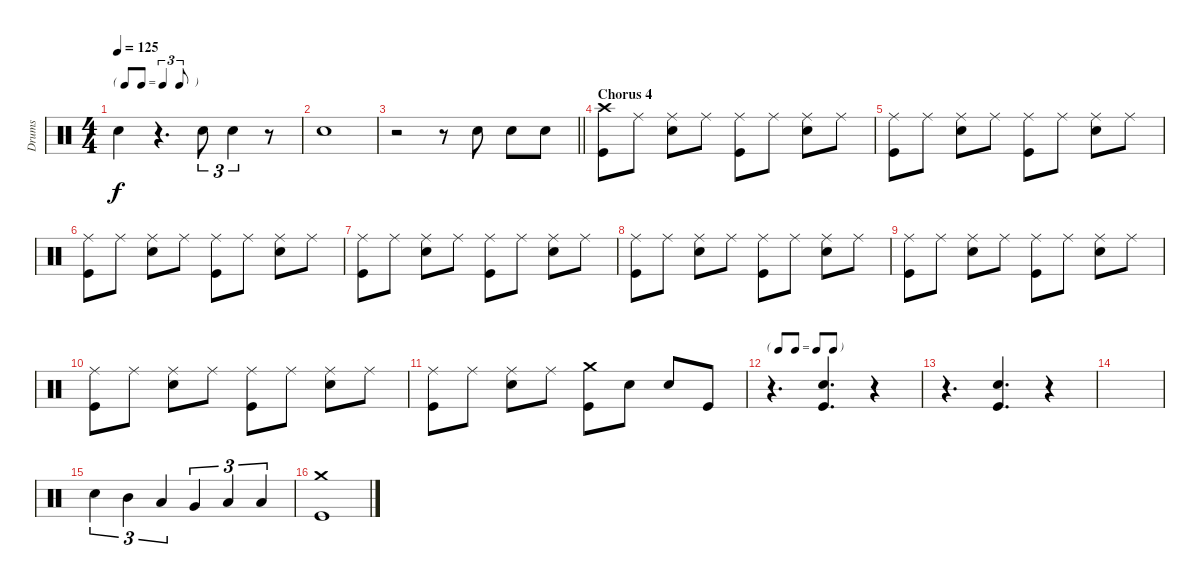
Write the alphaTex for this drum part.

\track ("Drums" "Drums") {instrument percussion}
\staff {score}
\articulation defaults
\ts (4 4)
\tf triplet8th
\tempo 125
\clef neutral
\ks aminor "Snare (hit) 2".4{dy f}
r.4{d} "Snare (hit) 2".8{tu (3 2)} "Snare (hit) 2".4{tu (3 2)} r.8 |
"Snare (hit) 2".1 |
\barLineRight lightlight
r.2 r.8 "Snare (hit) 2".8 "Snare (hit) 2".8 "Snare (hit) 2".8 |
\section ("" "Chorus 4")
("Crash high (hit)" "Kick (hit)").8 "Ride (middle)".8 ("Ride (middle)" "Snare (hit) 2").8 "Ride (middle)".8 ("Ride (middle)" "Kick (hit)").8 "Ride (middle)".8 ("Ride (middle)" "Snare (hit) 2").8 "Ride (middle)".8 |
("Ride (middle)" "Kick (hit)").8 "Ride (middle)".8 ("Ride (middle)" "Snare (hit) 2").8 "Ride (middle)".8 ("Ride (middle)" "Kick (hit)").8 "Ride (middle)".8 ("Ride (middle)" "Snare (hit) 2").8 "Ride (middle)".8 |
("Ride (middle)" "Kick (hit)").8 "Ride (middle)".8 ("Ride (middle)" "Snare (hit) 2").8 "Ride (middle)".8 ("Ride (middle)" "Kick (hit)").8 "Ride (middle)".8 ("Ride (middle)" "Snare (hit) 2").8 "Ride (middle)".8 |
("Ride (middle)" "Kick (hit)").8 "Ride (middle)".8 ("Ride (middle)" "Snare (hit) 2").8 "Ride (middle)".8 ("Ride (middle)" "Kick (hit)").8 "Ride (middle)".8 ("Ride (middle)" "Snare (hit) 2").8 "Ride (middle)".8 |
("Ride (middle)" "Kick (hit)").8 "Ride (middle)".8 ("Ride (middle)" "Snare (hit) 2").8 "Ride (middle)".8 ("Ride (middle)" "Kick (hit)").8 "Ride (middle)".8 ("Ride (middle)" "Snare (hit) 2").8 "Ride (middle)".8 |
("Ride (middle)" "Kick (hit)").8 "Ride (middle)".8 ("Ride (middle)" "Snare (hit) 2").8 "Ride (middle)".8 ("Ride (middle)" "Kick (hit)").8 "Ride (middle)".8 ("Ride (middle)" "Snare (hit) 2").8 "Ride (middle)".8 |
("Ride (middle)" "Kick (hit)").8 "Ride (middle)".8 ("Ride (middle)" "Snare (hit) 2").8 "Ride (middle)".8 ("Ride (middle)" "Kick (hit)").8 "Ride (middle)".8 ("Ride (middle)" "Snare (hit) 2").8 "Ride (middle)".8 |
("Ride (middle)" "Kick (hit)").8 "Ride (middle)".8 ("Ride (middle)" "Snare (hit) 2").8 "Ride (middle)".8 ("Crash medium (hit)" "Kick (hit)").8 "Snare (hit) 2".8 "Snare (hit) 2".8 "Kick (hit)".8 |
\tf none
r.4{d} ("Snare (hit) 2" "Kick (hit)").4{d} r.4 |
r.4{d} ("Snare (hit) 2" "Kick (hit)").4{d} r.4 |
|
"Snare (hit) 2".4{tu (3 2)} "Mid Tom (hit)".4{tu (3 2)} "Low Tom (hit)".4{tu (3 2)} "Very Low Tom (hit)".4{tu (3 2)} "Low Floor Tom (hit)".4{tu (3 2)} "Low Floor Tom (hit)".4{tu (3 2)} |
("Crash medium (hit)" "Kick (hit)").1
